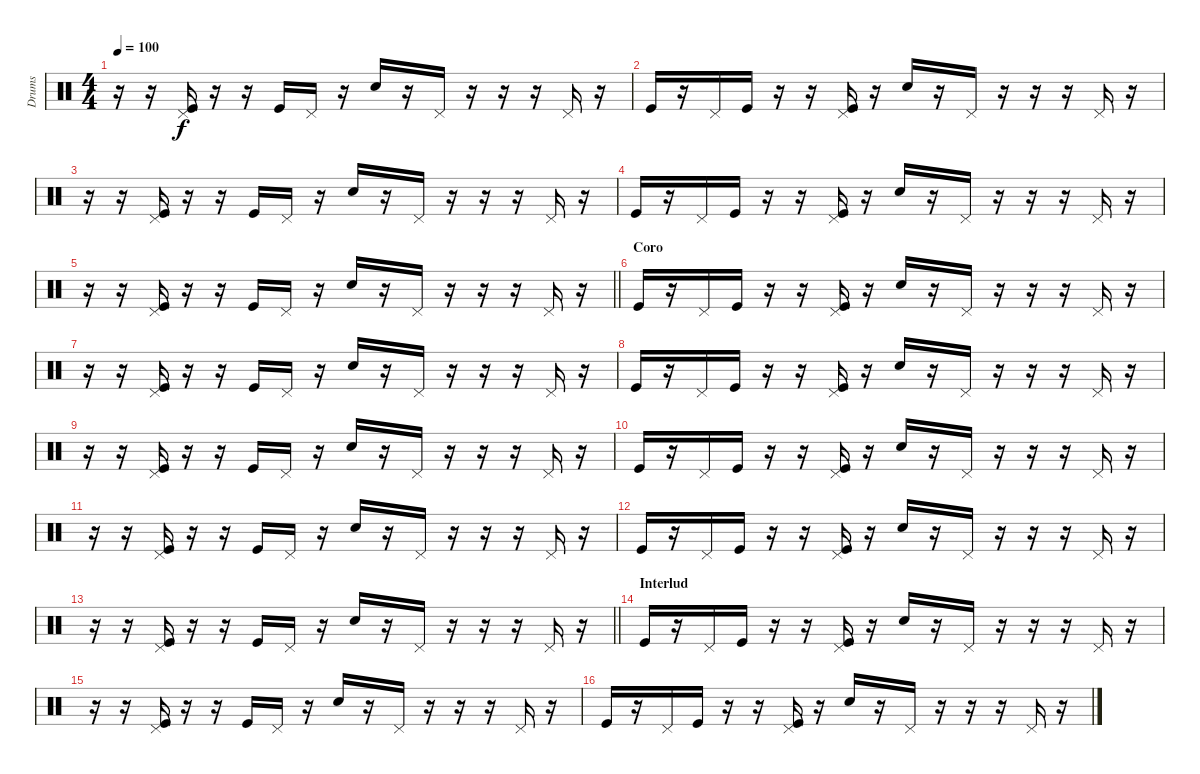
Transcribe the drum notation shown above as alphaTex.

\track ("Drums " "Drums ") {instrument percussion}
\staff {score}
\articulation defaults
\ts (4 4)
\tempo 100
\clef neutral
\ks c
r.16{dy f} r.16 ("Pedal Hi-Hat (hit)" "Kick (hit)").16 r.16 r.16 "Kick (hit)".16 "Pedal Hi-Hat (hit)".16 r.16 "Snare (hit) 2".16 r.16 "Pedal Hi-Hat (hit)".16 r.16 r.16 r.16 "Pedal Hi-Hat (hit)".16 r.16 |
"Kick (hit)".16 r.16 "Pedal Hi-Hat (hit)".16 "Kick (hit)".16 r.16 r.16 ("Pedal Hi-Hat (hit)" "Kick (hit)").16 r.16 "Snare (hit) 2".16 r.16 "Pedal Hi-Hat (hit)".16 r.16 r.16 r.16 "Pedal Hi-Hat (hit)".16 r.16 |
r.16 r.16 ("Pedal Hi-Hat (hit)" "Kick (hit)").16 r.16 r.16 "Kick (hit)".16 "Pedal Hi-Hat (hit)".16 r.16 "Snare (hit) 2".16 r.16 "Pedal Hi-Hat (hit)".16 r.16 r.16 r.16 "Pedal Hi-Hat (hit)".16 r.16 |
"Kick (hit)".16 r.16 "Pedal Hi-Hat (hit)".16 "Kick (hit)".16 r.16 r.16 ("Pedal Hi-Hat (hit)" "Kick (hit)").16 r.16 "Snare (hit) 2".16 r.16 "Pedal Hi-Hat (hit)".16 r.16 r.16 r.16 "Pedal Hi-Hat (hit)".16 r.16 |
\barLineRight lightlight
r.16 r.16 ("Pedal Hi-Hat (hit)" "Kick (hit)").16 r.16 r.16 "Kick (hit)".16 "Pedal Hi-Hat (hit)".16 r.16 "Snare (hit) 2".16 r.16 "Pedal Hi-Hat (hit)".16 r.16 r.16 r.16 "Pedal Hi-Hat (hit)".16 r.16 |
\section ("" "Coro ")
"Kick (hit)".16 r.16 "Pedal Hi-Hat (hit)".16 "Kick (hit)".16 r.16 r.16 ("Pedal Hi-Hat (hit)" "Kick (hit)").16 r.16 "Snare (hit) 2".16 r.16 "Pedal Hi-Hat (hit)".16 r.16 r.16 r.16 "Pedal Hi-Hat (hit)".16 r.16 |
r.16 r.16 ("Pedal Hi-Hat (hit)" "Kick (hit)").16 r.16 r.16 "Kick (hit)".16 "Pedal Hi-Hat (hit)".16 r.16 "Snare (hit) 2".16 r.16 "Pedal Hi-Hat (hit)".16 r.16 r.16 r.16 "Pedal Hi-Hat (hit)".16 r.16 |
"Kick (hit)".16 r.16 "Pedal Hi-Hat (hit)".16 "Kick (hit)".16 r.16 r.16 ("Pedal Hi-Hat (hit)" "Kick (hit)").16 r.16 "Snare (hit) 2".16 r.16 "Pedal Hi-Hat (hit)".16 r.16 r.16 r.16 "Pedal Hi-Hat (hit)".16 r.16 |
r.16 r.16 ("Pedal Hi-Hat (hit)" "Kick (hit)").16 r.16 r.16 "Kick (hit)".16 "Pedal Hi-Hat (hit)".16 r.16 "Snare (hit) 2".16 r.16 "Pedal Hi-Hat (hit)".16 r.16 r.16 r.16 "Pedal Hi-Hat (hit)".16 r.16 |
"Kick (hit)".16 r.16 "Pedal Hi-Hat (hit)".16 "Kick (hit)".16 r.16 r.16 ("Pedal Hi-Hat (hit)" "Kick (hit)").16 r.16 "Snare (hit) 2".16 r.16 "Pedal Hi-Hat (hit)".16 r.16 r.16 r.16 "Pedal Hi-Hat (hit)".16 r.16 |
r.16 r.16 ("Pedal Hi-Hat (hit)" "Kick (hit)").16 r.16 r.16 "Kick (hit)".16 "Pedal Hi-Hat (hit)".16 r.16 "Snare (hit) 2".16 r.16 "Pedal Hi-Hat (hit)".16 r.16 r.16 r.16 "Pedal Hi-Hat (hit)".16 r.16 |
"Kick (hit)".16 r.16 "Pedal Hi-Hat (hit)".16 "Kick (hit)".16 r.16 r.16 ("Pedal Hi-Hat (hit)" "Kick (hit)").16 r.16 "Snare (hit) 2".16 r.16 "Pedal Hi-Hat (hit)".16 r.16 r.16 r.16 "Pedal Hi-Hat (hit)".16 r.16 |
\barLineRight lightlight
r.16 r.16 ("Pedal Hi-Hat (hit)" "Kick (hit)").16 r.16 r.16 "Kick (hit)".16 "Pedal Hi-Hat (hit)".16 r.16 "Snare (hit) 2".16 r.16 "Pedal Hi-Hat (hit)".16 r.16 r.16 r.16 "Pedal Hi-Hat (hit)".16 r.16 |
\section ("" "Interlud")
"Kick (hit)".16 r.16 "Pedal Hi-Hat (hit)".16 "Kick (hit)".16 r.16 r.16 ("Pedal Hi-Hat (hit)" "Kick (hit)").16 r.16 "Snare (hit) 2".16 r.16 "Pedal Hi-Hat (hit)".16 r.16 r.16 r.16 "Pedal Hi-Hat (hit)".16 r.16 |
r.16 r.16 ("Pedal Hi-Hat (hit)" "Kick (hit)").16 r.16 r.16 "Kick (hit)".16 "Pedal Hi-Hat (hit)".16 r.16 "Snare (hit) 2".16 r.16 "Pedal Hi-Hat (hit)".16 r.16 r.16 r.16 "Pedal Hi-Hat (hit)".16 r.16 |
"Kick (hit)".16 r.16 "Pedal Hi-Hat (hit)".16 "Kick (hit)".16 r.16 r.16 ("Pedal Hi-Hat (hit)" "Kick (hit)").16 r.16 "Snare (hit) 2".16 r.16 "Pedal Hi-Hat (hit)".16 r.16 r.16 r.16 "Pedal Hi-Hat (hit)".16 r.16
